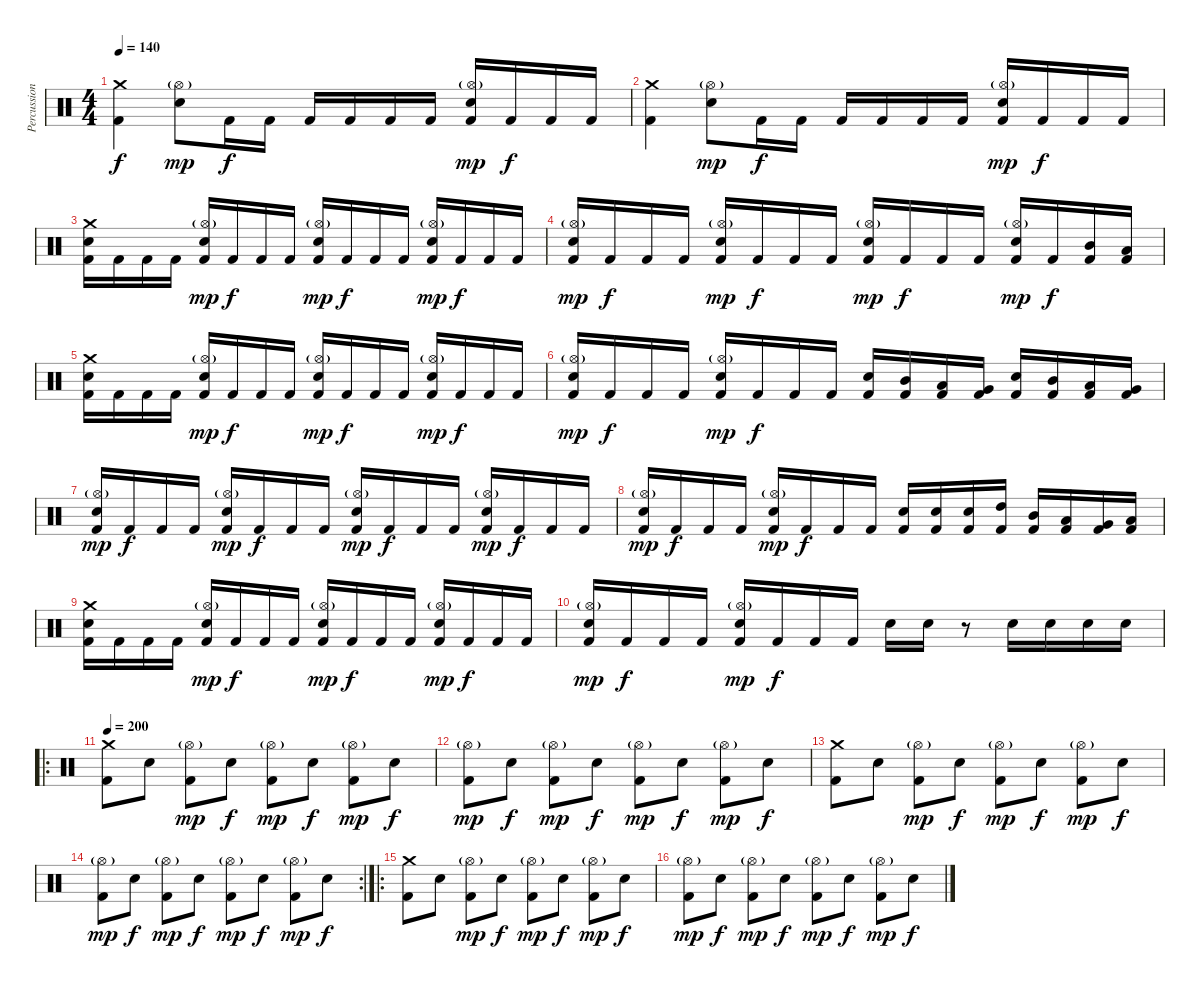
\track ("Percussion" "Percussion") {instrument percussion}
\staff {score}
\articulation defaults
\ts (4 4)
\tempo 140
\clef neutral
\ks c
("Crash medium (hit)" "Kick (hit) 2").4{dy f} ("Hi-Hat (open)"{g} "Electric Snare (hit)").8{dy mp} "Kick (hit) 2".16{dy f} "Kick (hit) 2".16 "Kick (hit) 2".16 "Kick (hit) 2".16 "Kick (hit) 2".16 "Kick (hit) 2".16 ("Hi-Hat (open)"{g} "Electric Snare (hit)" "Kick (hit) 2").16{dy mp} "Kick (hit) 2".16{dy f} "Kick (hit) 2".16 "Kick (hit) 2".16 |
("Crash medium (hit)" "Kick (hit) 2").4 ("Hi-Hat (open)"{g} "Electric Snare (hit)").8{dy mp} "Kick (hit) 2".16{dy f} "Kick (hit) 2".16 "Kick (hit) 2".16 "Kick (hit) 2".16 "Kick (hit) 2".16 "Kick (hit) 2".16 ("Hi-Hat (open)"{g} "Electric Snare (hit)" "Kick (hit) 2").16{dy mp} "Kick (hit) 2".16{dy f} "Kick (hit) 2".16 "Kick (hit) 2".16 |
("Crash medium (hit)" "Electric Snare (hit)" "Kick (hit) 2").16 "Kick (hit) 2".16 "Kick (hit) 2".16 "Kick (hit) 2".16 ("Hi-Hat (open)"{g} "Electric Snare (hit)" "Kick (hit) 2").16{dy mp} "Kick (hit) 2".16{dy f} "Kick (hit) 2".16 "Kick (hit) 2".16 ("Hi-Hat (open)"{g} "Electric Snare (hit)" "Kick (hit) 2").16{dy mp} "Kick (hit) 2".16{dy f} "Kick (hit) 2".16 "Kick (hit) 2".16 ("Hi-Hat (open)"{g} "Electric Snare (hit)" "Kick (hit) 2").16{dy mp} "Kick (hit) 2".16{dy f} "Kick (hit) 2".16 "Kick (hit) 2".16 |
("Hi-Hat (open)"{g} "Electric Snare (hit)" "Kick (hit) 2").16{dy mp} "Kick (hit) 2".16{dy f} "Kick (hit) 2".16 "Kick (hit) 2".16 ("Hi-Hat (open)"{g} "Electric Snare (hit)" "Kick (hit) 2").16{dy mp} "Kick (hit) 2".16{dy f} "Kick (hit) 2".16 "Kick (hit) 2".16 ("Hi-Hat (open)"{g} "Electric Snare (hit)" "Kick (hit) 2").16{dy mp} "Kick (hit) 2".16{dy f} "Kick (hit) 2".16 "Kick (hit) 2".16 ("Hi-Hat (open)"{g} "Electric Snare (hit)" "Kick (hit) 2").16{dy mp} "Kick (hit) 2".16{dy f} ("Mid Tom (hit)" "Kick (hit) 2").16 ("Low Tom (hit)" "Kick (hit) 2").16 |
("Crash medium (hit)" "Electric Snare (hit)" "Kick (hit) 2").16 "Kick (hit) 2".16 "Kick (hit) 2".16 "Kick (hit) 2".16 ("Hi-Hat (open)"{g} "Electric Snare (hit)" "Kick (hit) 2").16{dy mp} "Kick (hit) 2".16{dy f} "Kick (hit) 2".16 "Kick (hit) 2".16 ("Hi-Hat (open)"{g} "Electric Snare (hit)" "Kick (hit) 2").16{dy mp} "Kick (hit) 2".16{dy f} "Kick (hit) 2".16 "Kick (hit) 2".16 ("Hi-Hat (open)"{g} "Electric Snare (hit)" "Kick (hit) 2").16{dy mp} "Kick (hit) 2".16{dy f} "Kick (hit) 2".16 "Kick (hit) 2".16 |
("Hi-Hat (open)"{g} "Electric Snare (hit)" "Kick (hit) 2").16{dy mp} "Kick (hit) 2".16{dy f} "Kick (hit) 2".16 "Kick (hit) 2".16 ("Hi-Hat (open)"{g} "Electric Snare (hit)" "Kick (hit) 2").16{dy mp} "Kick (hit) 2".16{dy f} "Kick (hit) 2".16 "Kick (hit) 2".16 ("Electric Snare (hit)" "Kick (hit) 2").16 ("Mid Tom (hit)" "Kick (hit) 2").16 ("Low Tom (hit)" "Kick (hit) 2").16 ("Very Low Tom (hit)" "Kick (hit) 2").16 ("Electric Snare (hit)" "Kick (hit) 2").16 ("Mid Tom (hit)" "Kick (hit) 2").16 ("Low Tom (hit)" "Kick (hit) 2").16 ("Very Low Tom (hit)" "Kick (hit) 2").16 |
("Hi-Hat (open)"{g} "Electric Snare (hit)" "Kick (hit) 2").16{dy mp} "Kick (hit) 2".16{dy f} "Kick (hit) 2".16 "Kick (hit) 2".16 ("Hi-Hat (open)"{g} "Electric Snare (hit)" "Kick (hit) 2").16{dy mp} "Kick (hit) 2".16{dy f} "Kick (hit) 2".16 "Kick (hit) 2".16 ("Hi-Hat (open)"{g} "Electric Snare (hit)" "Kick (hit) 2").16{dy mp} "Kick (hit) 2".16{dy f} "Kick (hit) 2".16 "Kick (hit) 2".16 ("Hi-Hat (open)"{g} "Electric Snare (hit)" "Kick (hit) 2").16{dy mp} "Kick (hit) 2".16{dy f} "Kick (hit) 2".16 "Kick (hit) 2".16 |
("Hi-Hat (open)"{g} "Electric Snare (hit)" "Kick (hit) 2").16{dy mp} "Kick (hit) 2".16{dy f} "Kick (hit) 2".16 "Kick (hit) 2".16 ("Hi-Hat (open)"{g} "Electric Snare (hit)" "Kick (hit) 2").16{dy mp} "Kick (hit) 2".16{dy f} "Kick (hit) 2".16 "Kick (hit) 2".16 ("Electric Snare (hit)" "Kick (hit) 2").16 ("Electric Snare (hit)" "Kick (hit) 2").16 ("Electric Snare (hit)" "Kick (hit) 2").16 ("High Tom (hit)" "Kick (hit) 2").16 ("Mid Tom (hit)" "Kick (hit) 2").16 ("Low Tom (hit)" "Kick (hit) 2").16 ("Very Low Tom (hit)" "Kick (hit) 2").16 ("Low Floor Tom (hit)" "Kick (hit) 2").16 |
("Crash medium (hit)" "Electric Snare (hit)" "Kick (hit) 2").16 "Kick (hit) 2".16 "Kick (hit) 2".16 "Kick (hit) 2".16 ("Hi-Hat (open)"{g} "Electric Snare (hit)" "Kick (hit) 2").16{dy mp} "Kick (hit) 2".16{dy f} "Kick (hit) 2".16 "Kick (hit) 2".16 ("Hi-Hat (open)"{g} "Electric Snare (hit)" "Kick (hit) 2").16{dy mp} "Kick (hit) 2".16{dy f} "Kick (hit) 2".16 "Kick (hit) 2".16 ("Hi-Hat (open)"{g} "Electric Snare (hit)" "Kick (hit) 2").16{dy mp} "Kick (hit) 2".16{dy f} "Kick (hit) 2".16 "Kick (hit) 2".16 |
("Hi-Hat (open)"{g} "Electric Snare (hit)" "Kick (hit) 2").16{dy mp} "Kick (hit) 2".16{dy f} "Kick (hit) 2".16 "Kick (hit) 2".16 ("Hi-Hat (open)"{g} "Electric Snare (hit)" "Kick (hit) 2").16{dy mp} "Kick (hit) 2".16{dy f} "Kick (hit) 2".16 "Kick (hit) 2".16 "Electric Snare (hit)".16 "Electric Snare (hit)".16 r.8 "Electric Snare (hit)".16 "Electric Snare (hit)".16 "Electric Snare (hit)".16 "Electric Snare (hit)".16 |
\ro
\tempo 200
("Crash medium (hit)" "Kick (hit) 2").8 "Electric Snare (hit)".8 ("Hi-Hat (open)"{g} "Kick (hit) 2").8{dy mp} "Electric Snare (hit)".8{dy f} ("Hi-Hat (open)"{g} "Kick (hit) 2").8{dy mp} "Electric Snare (hit)".8{dy f} ("Hi-Hat (open)"{g} "Kick (hit) 2").8{dy mp} "Electric Snare (hit)".8{dy f} |
("Hi-Hat (open)"{g} "Kick (hit) 2").8{dy mp} "Electric Snare (hit)".8{dy f} ("Hi-Hat (open)"{g} "Kick (hit) 2").8{dy mp} "Electric Snare (hit)".8{dy f} ("Hi-Hat (open)"{g} "Kick (hit) 2").8{dy mp} "Electric Snare (hit)".8{dy f} ("Hi-Hat (open)"{g} "Kick (hit) 2").8{dy mp} "Electric Snare (hit)".8{dy f} |
("Crash medium (hit)" "Kick (hit) 2").8 "Electric Snare (hit)".8 ("Hi-Hat (open)"{g} "Kick (hit) 2").8{dy mp} "Electric Snare (hit)".8{dy f} ("Hi-Hat (open)"{g} "Kick (hit) 2").8{dy mp} "Electric Snare (hit)".8{dy f} ("Hi-Hat (open)"{g} "Kick (hit) 2").8{dy mp} "Electric Snare (hit)".8{dy f} |
\rc 2
("Hi-Hat (open)"{g} "Kick (hit) 2").8{dy mp} "Electric Snare (hit)".8{dy f} ("Hi-Hat (open)"{g} "Kick (hit) 2").8{dy mp} "Electric Snare (hit)".8{dy f} ("Hi-Hat (open)"{g} "Kick (hit) 2").8{dy mp} "Electric Snare (hit)".8{dy f} ("Hi-Hat (open)"{g} "Kick (hit) 2").8{dy mp} "Electric Snare (hit)".8{dy f} |
\ro
("Crash medium (hit)" "Kick (hit) 2").8 "Electric Snare (hit)".8 ("Hi-Hat (open)"{g} "Kick (hit) 2").8{dy mp} "Electric Snare (hit)".8{dy f} ("Hi-Hat (open)"{g} "Kick (hit) 2").8{dy mp} "Electric Snare (hit)".8{dy f} ("Hi-Hat (open)"{g} "Kick (hit) 2").8{dy mp} "Electric Snare (hit)".8{dy f} |
("Hi-Hat (open)"{g} "Kick (hit) 2").8{dy mp} "Electric Snare (hit)".8{dy f} ("Hi-Hat (open)"{g} "Kick (hit) 2").8{dy mp} "Electric Snare (hit)".8{dy f} ("Hi-Hat (open)"{g} "Kick (hit) 2").8{dy mp} "Electric Snare (hit)".8{dy f} ("Hi-Hat (open)"{g} "Kick (hit) 2").8{dy mp} "Electric Snare (hit)".8{dy f}
